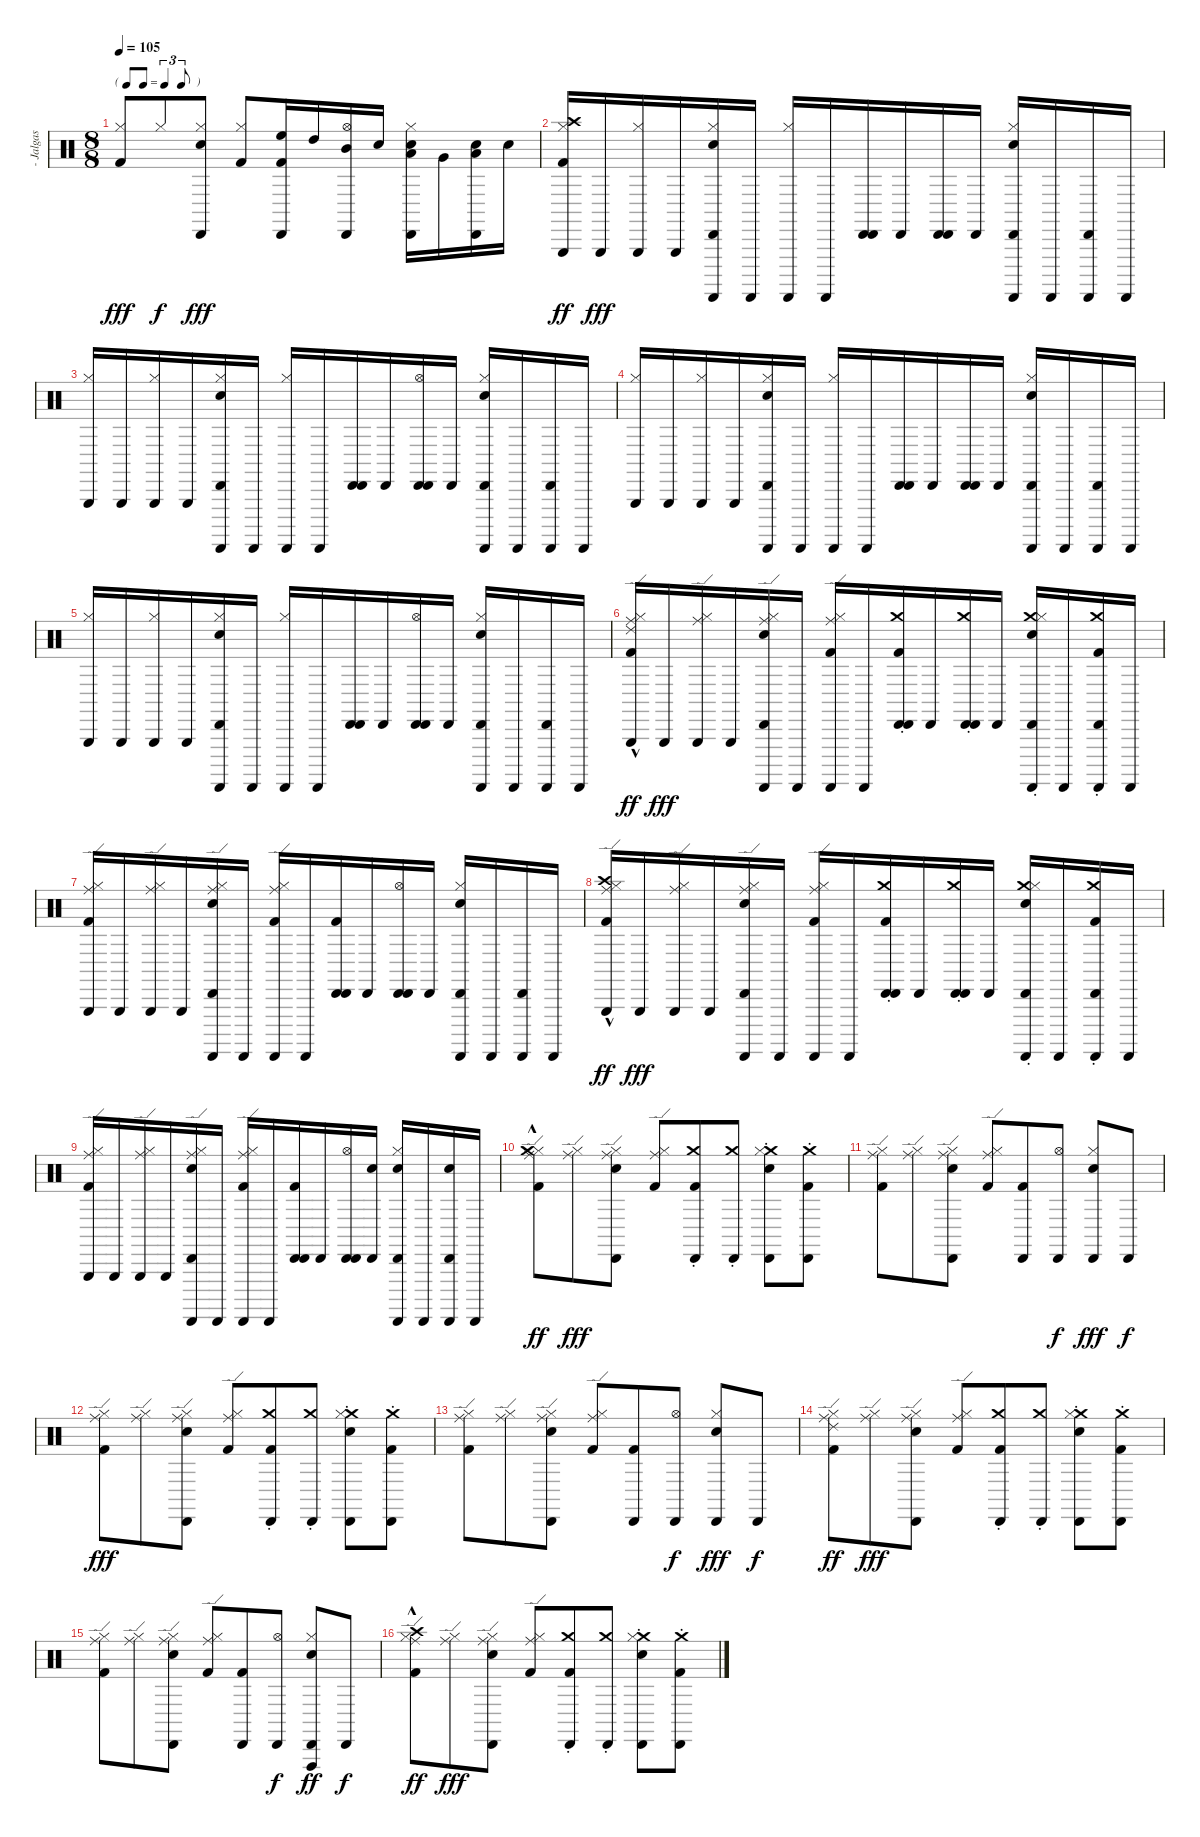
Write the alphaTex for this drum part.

\track (" - Jalgas -" " - Jalgas ") {instrument percussion}
\staff {score}
\articulation defaults
\ts (8 8)
\tf triplet8th
\tempo 105
\clef neutral
\ks c
("Kick (hit) 2" "Hi-Hat (closed)").8{dy fff} "Hi-Hat (closed)".8{dy f} ("Electric Snare (hit)" "Hi-Hat (closed)" "Cabasa (hit)").8{dy fff} ("Kick (hit) 2" "Hi-Hat (closed)").8 ("Kick (hit) 2" "Cabasa (hit)" "High Floor Tom (hit)").16 "High Tom (hit)".16 ("Hi-Hat (open)" "Cabasa (hit)" "Mid Tom (hit)").16 "Electric Snare (hit)".16 ("Electric Snare (hit)" "Hi-Hat (closed)" "Cabasa (hit)" "Low Tom (hit)").16 "Very Low Tom (hit)".16 ("Electric Snare (hit)" "Cabasa (hit)" "Low Floor Tom (hit)").16 "Electric Snare (hit)".16 |
("Triangle (hit)" "Kick (hit) 2" "Hi-Hat (closed)" "Crash high (hit)").16{dy ff} "Triangle (hit)".16{dy fff} ("Triangle (hit)" "Hi-Hat (closed)").16 "Triangle (hit)".16 ("Guiro (scrap-return)" "Electric Snare (hit)" "Hi-Hat (closed)" "Cabasa (hit)").16 "Guiro (scrap-return)".16 ("Guiro (scrap-return)" "Hi-Hat (closed)").16 "Guiro (scrap-return)".16 ("Cabasa (hit)" "Cabasa (hit)").16 "Cabasa (hit)".16 ("Cabasa (hit)" "Cabasa (hit)").16 "Cabasa (hit)".16 ("Guiro (scrap-return)" "Electric Snare (hit)" "Hi-Hat (closed)" "Cabasa (hit)").16 "Guiro (scrap-return)".16 ("Guiro (scrap-return)" "Cabasa (hit)").16 "Guiro (scrap-return)".16 |
("Triangle (hit)" "Hi-Hat (closed)").16 "Triangle (hit)".16 ("Triangle (hit)" "Hi-Hat (closed)").16 "Triangle (hit)".16 ("Guiro (scrap-return)" "Electric Snare (hit)" "Hi-Hat (closed)" "Cabasa (hit)").16 "Guiro (scrap-return)".16 ("Guiro (scrap-return)" "Hi-Hat (closed)").16 "Guiro (scrap-return)".16 ("Cabasa (hit)" "Cabasa (hit)").16 "Cabasa (hit)".16 ("Cabasa (hit)" "Hi-Hat (open)" "Cabasa (hit)").16 "Cabasa (hit)".16 ("Guiro (scrap-return)" "Electric Snare (hit)" "Hi-Hat (closed)" "Cabasa (hit)").16 "Guiro (scrap-return)".16 ("Guiro (scrap-return)" "Cabasa (hit)").16 "Guiro (scrap-return)".16 |
("Triangle (hit)" "Hi-Hat (closed)").16 "Triangle (hit)".16 ("Triangle (hit)" "Hi-Hat (closed)").16 "Triangle (hit)".16 ("Guiro (scrap-return)" "Electric Snare (hit)" "Hi-Hat (closed)" "Cabasa (hit)").16 "Guiro (scrap-return)".16 ("Guiro (scrap-return)" "Hi-Hat (closed)").16 "Guiro (scrap-return)".16 ("Cabasa (hit)" "Cabasa (hit)").16 "Cabasa (hit)".16 ("Cabasa (hit)" "Cabasa (hit)").16 "Cabasa (hit)".16 ("Guiro (scrap-return)" "Electric Snare (hit)" "Hi-Hat (closed)" "Cabasa (hit)").16 "Guiro (scrap-return)".16 ("Guiro (scrap-return)" "Cabasa (hit)").16 "Guiro (scrap-return)".16 |
("Triangle (hit)" "Hi-Hat (closed)").16 "Triangle (hit)".16 ("Triangle (hit)" "Hi-Hat (closed)").16 "Triangle (hit)".16 ("Guiro (scrap-return)" "Electric Snare (hit)" "Hi-Hat (closed)" "Cabasa (hit)").16 "Guiro (scrap-return)".16 ("Guiro (scrap-return)" "Hi-Hat (closed)").16 "Guiro (scrap-return)".16 ("Cabasa (hit)" "Cabasa (hit)").16 "Cabasa (hit)".16 ("Cabasa (hit)" "Hi-Hat (open)" "Cabasa (hit)").16 "Cabasa (hit)".16 ("Guiro (scrap-return)" "Electric Snare (hit)" "Hi-Hat (closed)" "Cabasa (hit)").16 "Guiro (scrap-return)".16 ("Guiro (scrap-return)" "Cabasa (hit)").16 "Guiro (scrap-return)".16 |
("Ride (edge)" "Triangle (hit)" "Kick (hit) 2" "Hi-Hat (closed)" "Ride (edge) 2"{hac}).16{dy ff} "Triangle (hit)".16{dy fff} ("Ride (edge)" "Triangle (hit)" "Hi-Hat (closed)").16 "Triangle (hit)".16 ("Ride (edge)" "Guiro (scrap-return)" "Electric Snare (hit)" "Hi-Hat (closed)" "Cabasa (hit)").16 "Guiro (scrap-return)".16 ("Ride (edge)" "Guiro (scrap-return)" "Kick (hit) 2" "Hi-Hat (closed)").16 "Guiro (scrap-return)".16 ("Crash medium (choke)" "Cabasa (hit)" "Kick (hit) 2" "Cabasa (hit)").16 "Cabasa (hit)".16 ("Crash medium (choke)" "Cabasa (hit)" "Cabasa (hit)").16 "Cabasa (hit)".16 ("Crash medium (choke)" "Guiro (scrap-return)" "Electric Snare (hit)" "Hi-Hat (closed)" "Cabasa (hit)").16 "Guiro (scrap-return)".16 ("Crash medium (choke)" "Guiro (scrap-return)" "Kick (hit) 2" "Cabasa (hit)").16 "Guiro (scrap-return)".16 |
("Ride (edge)" "Triangle (hit)" "Kick (hit) 2" "Hi-Hat (closed)").16 "Triangle (hit)".16 ("Ride (edge)" "Triangle (hit)" "Hi-Hat (closed)").16 "Triangle (hit)".16 ("Ride (edge)" "Guiro (scrap-return)" "Electric Snare (hit)" "Hi-Hat (closed)" "Cabasa (hit)").16 "Guiro (scrap-return)".16 ("Ride (edge)" "Guiro (scrap-return)" "Kick (hit) 2" "Hi-Hat (closed)").16 "Guiro (scrap-return)".16 ("Cabasa (hit)" "Kick (hit) 2" "Cabasa (hit)").16 "Cabasa (hit)".16 ("Cabasa (hit)" "Hi-Hat (open)" "Cabasa (hit)").16 "Cabasa (hit)".16 ("Guiro (scrap-return)" "Electric Snare (hit)" "Hi-Hat (closed)" "Cabasa (hit)").16 "Guiro (scrap-return)".16 ("Guiro (scrap-return)" "Cabasa (hit)").16 "Guiro (scrap-return)".16 |
("Ride (edge)" "Triangle (hit)" "Kick (hit) 2" "Hi-Hat (closed)" "Crash high (hit)"{hac}).16{dy ff} "Triangle (hit)".16{dy fff} ("Ride (edge)" "Triangle (hit)" "Hi-Hat (closed)").16 "Triangle (hit)".16 ("Ride (edge)" "Guiro (scrap-return)" "Electric Snare (hit)" "Hi-Hat (closed)" "Cabasa (hit)").16 "Guiro (scrap-return)".16 ("Ride (edge)" "Guiro (scrap-return)" "Kick (hit) 2" "Hi-Hat (closed)").16 "Guiro (scrap-return)".16 ("Crash medium (choke)" "Cabasa (hit)" "Kick (hit) 2" "Cabasa (hit)").16 "Cabasa (hit)".16 ("Crash medium (choke)" "Cabasa (hit)" "Cabasa (hit)").16 "Cabasa (hit)".16 ("Crash medium (choke)" "Guiro (scrap-return)" "Electric Snare (hit)" "Hi-Hat (closed)" "Cabasa (hit)").16 "Guiro (scrap-return)".16 ("Crash medium (choke)" "Guiro (scrap-return)" "Kick (hit) 2" "Cabasa (hit)").16 "Guiro (scrap-return)".16 |
("Ride (edge)" "Triangle (hit)" "Kick (hit) 2" "Hi-Hat (closed)").16 "Triangle (hit)".16 ("Ride (edge)" "Triangle (hit)" "Hi-Hat (closed)").16 "Triangle (hit)".16 ("Ride (edge)" "Guiro (scrap-return)" "Electric Snare (hit)" "Hi-Hat (closed)" "Cabasa (hit)").16 "Guiro (scrap-return)".16 ("Ride (edge)" "Guiro (scrap-return)" "Kick (hit) 2" "Hi-Hat (closed)").16 "Guiro (scrap-return)".16 ("Cabasa (hit)" "Kick (hit) 2" "Cabasa (hit)").16 "Cabasa (hit)".16 ("Cabasa (hit)" "Hi-Hat (open)" "Cabasa (hit)").16 ("Cabasa (hit)" "Electric Snare (hit)").16 ("Guiro (scrap-return)" "Electric Snare (hit)" "Hi-Hat (closed)" "Cabasa (hit)").16 "Guiro (scrap-return)".16 ("Guiro (scrap-return)" "Electric Snare (hit)" "Cabasa (hit)").16 "Guiro (scrap-return)".16 |
("Ride (edge)" "Kick (hit) 2" "Hi-Hat (closed)" "Crash medium (hit)"{hac}).8{dy ff} ("Ride (edge)" "Hi-Hat (closed)").8{dy fff} ("Ride (edge)" "Electric Snare (hit)" "Hi-Hat (closed)" "Cabasa (hit)").8 ("Ride (edge)" "Kick (hit) 2" "Hi-Hat (closed)").8 ("Crash medium (choke)" "Kick (hit) 2" "Cabasa (hit)").8 ("Crash medium (choke)" "Cabasa (hit)").8 ("Crash medium (choke)" "Electric Snare (hit)" "Hi-Hat (closed)" "Cabasa (hit)").8 ("Crash medium (choke)" "Kick (hit) 2" "Cabasa (hit)").8 |
("Ride (edge)" "Kick (hit) 2" "Hi-Hat (closed)").8 ("Ride (edge)" "Hi-Hat (closed)").8 ("Ride (edge)" "Electric Snare (hit)" "Hi-Hat (closed)" "Cabasa (hit)").8 ("Ride (edge)" "Kick (hit) 2" "Hi-Hat (closed)").8 ("Kick (hit) 2" "Cabasa (hit)").8 ("Hi-Hat (open)" "Cabasa (hit)").8{dy f} ("Electric Snare (hit)" "Hi-Hat (closed)" "Cabasa (hit)").8{dy fff} "Cabasa (hit)".8{dy f} |
("Ride (edge)" "Kick (hit) 2" "Hi-Hat (closed)").8{dy fff} ("Ride (edge)" "Hi-Hat (closed)").8 ("Ride (edge)" "Electric Snare (hit)" "Hi-Hat (closed)" "Cabasa (hit)").8 ("Ride (edge)" "Kick (hit) 2" "Hi-Hat (closed)").8 ("Crash medium (choke)" "Kick (hit) 2" "Cabasa (hit)").8 ("Crash medium (choke)" "Cabasa (hit)").8 ("Crash medium (choke)" "Electric Snare (hit)" "Hi-Hat (closed)" "Cabasa (hit)").8 ("Crash medium (choke)" "Kick (hit) 2" "Cabasa (hit)").8 |
("Ride (edge)" "Kick (hit) 2" "Hi-Hat (closed)").8 ("Ride (edge)" "Hi-Hat (closed)").8 ("Ride (edge)" "Electric Snare (hit)" "Hi-Hat (closed)" "Cabasa (hit)").8 ("Ride (edge)" "Kick (hit) 2" "Hi-Hat (closed)").8 ("Kick (hit) 2" "Cabasa (hit)").8 ("Hi-Hat (open)" "Cabasa (hit)").8{dy f} ("Electric Snare (hit)" "Hi-Hat (closed)" "Cabasa (hit)").8{dy fff} "Cabasa (hit)".8{dy f} |
("Ride (edge)" "Kick (hit) 2" "Hi-Hat (closed)" "Ride (edge) 2").8{dy ff} ("Ride (edge)" "Hi-Hat (closed)").8{dy fff} ("Ride (edge)" "Electric Snare (hit)" "Hi-Hat (closed)" "Cabasa (hit)").8 ("Ride (edge)" "Kick (hit) 2" "Hi-Hat (closed)").8 ("Crash medium (choke)" "Kick (hit) 2" "Cabasa (hit)").8 ("Crash medium (choke)" "Cabasa (hit)").8 ("Crash medium (choke)" "Electric Snare (hit)" "Hi-Hat (closed)" "Cabasa (hit)").8 ("Crash medium (choke)" "Kick (hit) 2" "Cabasa (hit)").8 |
("Ride (edge)" "Kick (hit) 2" "Hi-Hat (closed)").8 ("Ride (edge)" "Hi-Hat (closed)").8 ("Ride (edge)" "Electric Snare (hit)" "Hi-Hat (closed)" "Cabasa (hit)").8 ("Ride (edge)" "Kick (hit) 2" "Hi-Hat (closed)").8 ("Kick (hit) 2" "Cabasa (hit)").8 ("Hi-Hat (open)" "Cabasa (hit)").8{dy f} ("Electric Snare (hit)" "Hi-Hat (closed)" "Cabasa (hit)" "Vibraslap (hit)").8{dy ff} "Cabasa (hit)".8{dy f} |
("Ride (edge)" "Kick (hit) 2" "Hi-Hat (closed)" "Crash high (hit)"{hac}).8{dy ff} ("Ride (edge)" "Hi-Hat (closed)").8{dy fff} ("Ride (edge)" "Electric Snare (hit)" "Hi-Hat (closed)" "Cabasa (hit)").8 ("Ride (edge)" "Kick (hit) 2" "Hi-Hat (closed)").8 ("Crash medium (choke)" "Kick (hit) 2" "Cabasa (hit)").8 ("Crash medium (choke)" "Cabasa (hit)").8 ("Crash medium (choke)" "Electric Snare (hit)" "Hi-Hat (closed)" "Cabasa (hit)").8 ("Crash medium (choke)" "Kick (hit) 2" "Cabasa (hit)").8
